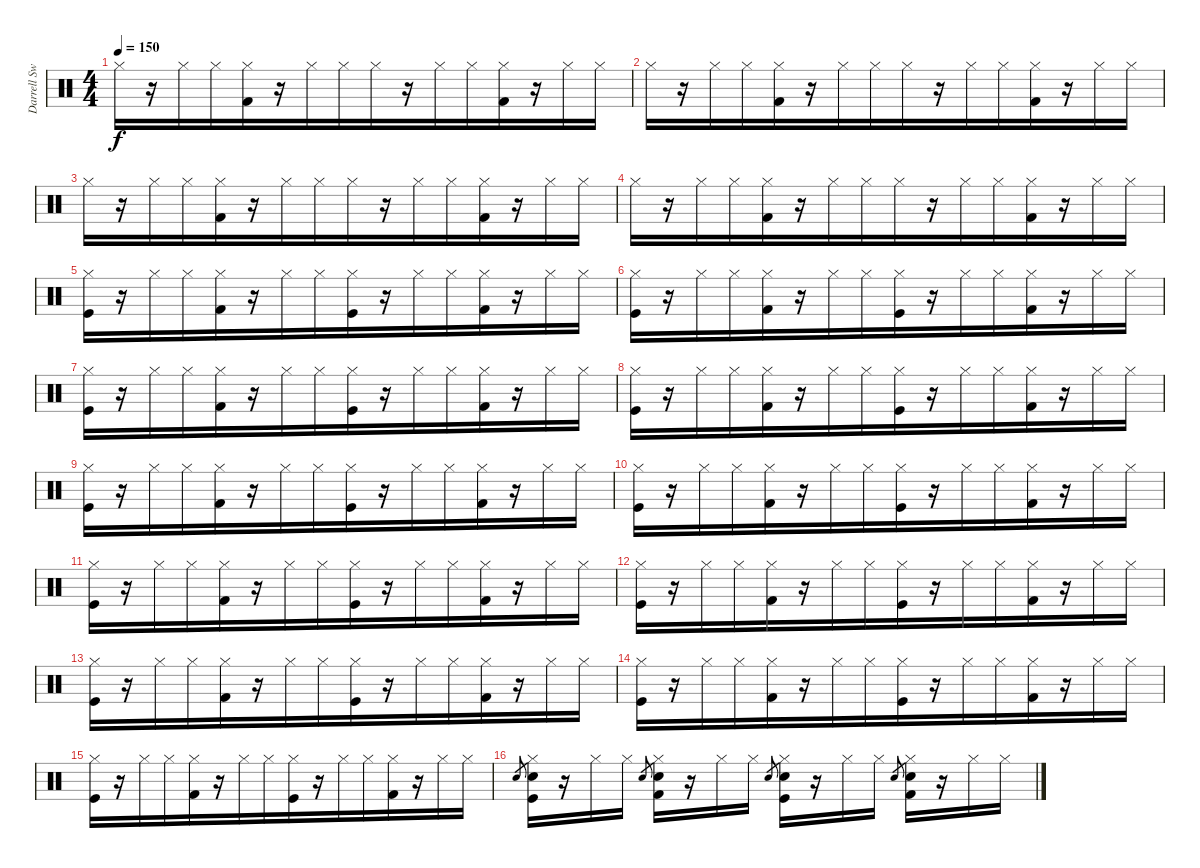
\track ("Darrell Sweet (drums)" "Darrell Sw") {instrument percussion}
\staff {score}
\articulation defaults
\ts (4 4)
\tempo 150
\clef neutral
\ks c "Hi-Hat (closed)".16{dy f}
r.16 "Hi-Hat (closed)".16 "Hi-Hat (closed)".16{beam merge} ("Hi-Hat (closed)" "Kick (hit) 2").16 r.16 "Hi-Hat (closed)".16 "Hi-Hat (closed)".16{beam merge} "Hi-Hat (closed)".16 r.16 "Hi-Hat (closed)".16 "Hi-Hat (closed)".16{beam merge} ("Hi-Hat (closed)" "Kick (hit) 2").16 r.16 "Hi-Hat (closed)".16 "Hi-Hat (closed)".16 |
"Hi-Hat (closed)".16 r.16 "Hi-Hat (closed)".16 "Hi-Hat (closed)".16{beam merge} ("Hi-Hat (closed)" "Kick (hit) 2").16 r.16 "Hi-Hat (closed)".16 "Hi-Hat (closed)".16{beam merge} "Hi-Hat (closed)".16 r.16 "Hi-Hat (closed)".16 "Hi-Hat (closed)".16{beam merge} ("Hi-Hat (closed)" "Kick (hit) 2").16 r.16 "Hi-Hat (closed)".16 "Hi-Hat (closed)".16 |
"Hi-Hat (closed)".16 r.16 "Hi-Hat (closed)".16 "Hi-Hat (closed)".16{beam merge} ("Hi-Hat (closed)" "Kick (hit) 2").16 r.16 "Hi-Hat (closed)".16 "Hi-Hat (closed)".16{beam merge} "Hi-Hat (closed)".16 r.16 "Hi-Hat (closed)".16 "Hi-Hat (closed)".16{beam merge} ("Hi-Hat (closed)" "Kick (hit) 2").16 r.16 "Hi-Hat (closed)".16 "Hi-Hat (closed)".16 |
"Hi-Hat (closed)".16 r.16 "Hi-Hat (closed)".16 "Hi-Hat (closed)".16{beam merge} ("Hi-Hat (closed)" "Kick (hit) 2").16 r.16 "Hi-Hat (closed)".16 "Hi-Hat (closed)".16{beam merge} "Hi-Hat (closed)".16 r.16 "Hi-Hat (closed)".16 "Hi-Hat (closed)".16{beam merge} ("Hi-Hat (closed)" "Kick (hit) 2").16 r.16 "Hi-Hat (closed)".16 "Hi-Hat (closed)".16 |
("Hi-Hat (closed)" "Kick (hit)").16 r.16 "Hi-Hat (closed)".16 "Hi-Hat (closed)".16{beam merge} ("Hi-Hat (closed)" "Kick (hit) 2").16 r.16 "Hi-Hat (closed)".16 "Hi-Hat (closed)".16{beam merge} ("Hi-Hat (closed)" "Kick (hit)").16 r.16 "Hi-Hat (closed)".16 "Hi-Hat (closed)".16{beam merge} ("Hi-Hat (closed)" "Kick (hit) 2").16 r.16 "Hi-Hat (closed)".16 "Hi-Hat (closed)".16 |
("Hi-Hat (closed)" "Kick (hit)").16 r.16 "Hi-Hat (closed)".16 "Hi-Hat (closed)".16{beam merge} ("Hi-Hat (closed)" "Kick (hit) 2").16 r.16 "Hi-Hat (closed)".16 "Hi-Hat (closed)".16{beam merge} ("Hi-Hat (closed)" "Kick (hit)").16 r.16 "Hi-Hat (closed)".16 "Hi-Hat (closed)".16{beam merge} ("Hi-Hat (closed)" "Kick (hit) 2").16 r.16 "Hi-Hat (closed)".16 "Hi-Hat (closed)".16 |
("Hi-Hat (closed)" "Kick (hit)").16 r.16 "Hi-Hat (closed)".16 "Hi-Hat (closed)".16{beam merge} ("Hi-Hat (closed)" "Kick (hit) 2").16 r.16 "Hi-Hat (closed)".16 "Hi-Hat (closed)".16{beam merge} ("Hi-Hat (closed)" "Kick (hit)").16 r.16 "Hi-Hat (closed)".16 "Hi-Hat (closed)".16{beam merge} ("Hi-Hat (closed)" "Kick (hit) 2").16 r.16 "Hi-Hat (closed)".16 "Hi-Hat (closed)".16 |
("Hi-Hat (closed)" "Kick (hit)").16 r.16 "Hi-Hat (closed)".16 "Hi-Hat (closed)".16{beam merge} ("Hi-Hat (closed)" "Kick (hit) 2").16 r.16 "Hi-Hat (closed)".16 "Hi-Hat (closed)".16{beam merge} ("Hi-Hat (closed)" "Kick (hit)").16 r.16 "Hi-Hat (closed)".16 "Hi-Hat (closed)".16{beam merge} ("Hi-Hat (closed)" "Kick (hit) 2").16 r.16 "Hi-Hat (closed)".16 "Hi-Hat (closed)".16 |
("Hi-Hat (closed)" "Kick (hit)").16 r.16 "Hi-Hat (closed)".16 "Hi-Hat (closed)".16{beam merge} ("Hi-Hat (closed)" "Kick (hit) 2").16 r.16 "Hi-Hat (closed)".16 "Hi-Hat (closed)".16{beam merge} ("Hi-Hat (closed)" "Kick (hit)").16 r.16 "Hi-Hat (closed)".16 "Hi-Hat (closed)".16{beam merge} ("Hi-Hat (closed)" "Kick (hit) 2").16 r.16 "Hi-Hat (closed)".16 "Hi-Hat (closed)".16 |
("Hi-Hat (closed)" "Kick (hit)").16 r.16 "Hi-Hat (closed)".16 "Hi-Hat (closed)".16{beam merge} ("Hi-Hat (closed)" "Kick (hit) 2").16 r.16 "Hi-Hat (closed)".16 "Hi-Hat (closed)".16{beam merge} ("Hi-Hat (closed)" "Kick (hit)").16 r.16 "Hi-Hat (closed)".16 "Hi-Hat (closed)".16{beam merge} ("Hi-Hat (closed)" "Kick (hit) 2").16 r.16 "Hi-Hat (closed)".16 "Hi-Hat (closed)".16 |
("Hi-Hat (closed)" "Kick (hit)").16 r.16 "Hi-Hat (closed)".16 "Hi-Hat (closed)".16{beam merge} ("Hi-Hat (closed)" "Kick (hit) 2").16 r.16 "Hi-Hat (closed)".16 "Hi-Hat (closed)".16{beam merge} ("Hi-Hat (closed)" "Kick (hit)").16 r.16 "Hi-Hat (closed)".16 "Hi-Hat (closed)".16{beam merge} ("Hi-Hat (closed)" "Kick (hit) 2").16 r.16 "Hi-Hat (closed)".16 "Hi-Hat (closed)".16 |
("Hi-Hat (closed)" "Kick (hit)").16 r.16 "Hi-Hat (closed)".16 "Hi-Hat (closed)".16{beam merge} ("Hi-Hat (closed)" "Kick (hit) 2").16 r.16 "Hi-Hat (closed)".16 "Hi-Hat (closed)".16{beam merge} ("Hi-Hat (closed)" "Kick (hit)").16 r.16 "Hi-Hat (closed)".16 "Hi-Hat (closed)".16{beam merge} ("Hi-Hat (closed)" "Kick (hit) 2").16 r.16 "Hi-Hat (closed)".16 "Hi-Hat (closed)".16 |
("Hi-Hat (closed)" "Kick (hit)").16 r.16 "Hi-Hat (closed)".16 "Hi-Hat (closed)".16{beam merge} ("Hi-Hat (closed)" "Kick (hit) 2").16 r.16 "Hi-Hat (closed)".16 "Hi-Hat (closed)".16{beam merge} ("Hi-Hat (closed)" "Kick (hit)").16 r.16 "Hi-Hat (closed)".16 "Hi-Hat (closed)".16{beam merge} ("Hi-Hat (closed)" "Kick (hit) 2").16 r.16 "Hi-Hat (closed)".16 "Hi-Hat (closed)".16 |
("Hi-Hat (closed)" "Kick (hit)").16 r.16 "Hi-Hat (closed)".16 "Hi-Hat (closed)".16{beam merge} ("Hi-Hat (closed)" "Kick (hit) 2").16 r.16 "Hi-Hat (closed)".16 "Hi-Hat (closed)".16{beam merge} ("Hi-Hat (closed)" "Kick (hit)").16 r.16 "Hi-Hat (closed)".16 "Hi-Hat (closed)".16{beam merge} ("Hi-Hat (closed)" "Kick (hit) 2").16 r.16 "Hi-Hat (closed)".16 "Hi-Hat (closed)".16 |
("Hi-Hat (closed)" "Kick (hit)").16 r.16 "Hi-Hat (closed)".16 "Hi-Hat (closed)".16{beam merge} ("Hi-Hat (closed)" "Kick (hit) 2").16 r.16 "Hi-Hat (closed)".16 "Hi-Hat (closed)".16{beam merge} ("Hi-Hat (closed)" "Kick (hit)").16 r.16 "Hi-Hat (closed)".16 "Hi-Hat (closed)".16{beam merge} ("Hi-Hat (closed)" "Kick (hit) 2").16 r.16 "Hi-Hat (closed)".16 "Hi-Hat (closed)".16 |
"Snare (hit) 2".8{gr} ("Hi-Hat (closed)" "Kick (hit)" "Snare (hit) 2").16 r.16 "Hi-Hat (closed)".16 "Hi-Hat (closed)".16 "Snare (hit) 2".8{gr beam merge} ("Hi-Hat (closed)" "Kick (hit) 2" "Snare (hit) 2").16 r.16 "Hi-Hat (closed)".16 "Hi-Hat (closed)".16 "Snare (hit) 2".8{gr beam merge} ("Hi-Hat (closed)" "Kick (hit)" "Snare (hit) 2").16 r.16 "Hi-Hat (closed)".16 "Hi-Hat (closed)".16 "Snare (hit) 2".8{gr beam merge} ("Hi-Hat (closed)" "Kick (hit) 2" "Snare (hit) 2").16 r.16 "Hi-Hat (closed)".16 "Hi-Hat (closed)".16
